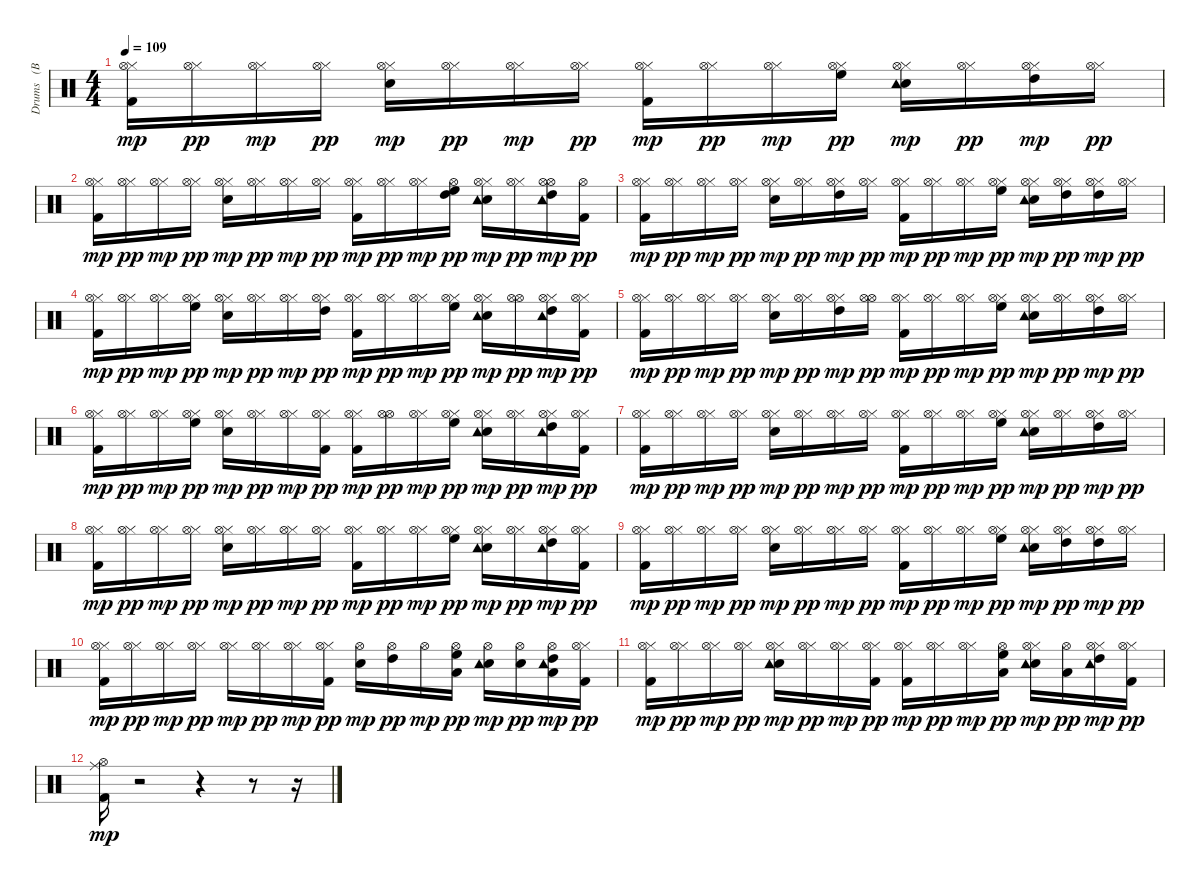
\track ("Drums   (BB)" "Drums   (B") {instrument percussion}
\staff {score}
\articulation defaults
\ts (4 4)
\tempo 109
\clef neutral
\ks c
("Kick (hit) 2" "Hi-Hat (closed)" "Hi-Hat (open)").16{dy mp} ("Hi-Hat (closed)" "Hi-Hat (open)").16{dy pp} ("Hi-Hat (closed)" "Hi-Hat (open)").16{dy mp} ("Hi-Hat (closed)" "Hi-Hat (open)").16{dy pp} ("Snare (hit) 2" "Hi-Hat (closed)" "Hi-Hat (open)").16{dy mp} ("Hi-Hat (closed)" "Hi-Hat (open)").16{dy pp} ("Hi-Hat (closed)" "Hi-Hat (open)").16{dy mp} ("Hi-Hat (closed)" "Hi-Hat (open)").16{dy pp} ("Kick (hit) 2" "Hi-Hat (closed)" "Hi-Hat (open)").16{dy mp} ("Hi-Hat (closed)" "Hi-Hat (open)").16{dy pp} ("Hi-Hat (closed)" "Hi-Hat (open)").16{dy mp} ("Hi-Hat (closed)" "High Floor Tom (hit)" "Hi-Hat (open)").16{dy pp} ("Snare (hit) 2" "Hi-Hat (closed)" "Tambourine (hit)" "Hi-Hat (open)").16{dy mp} ("Hi-Hat (closed)" "Hi-Hat (open)").16{dy pp} ("Hi-Hat (closed)" "High Tom (hit)" "Hi-Hat (open)").16{dy mp} ("Hi-Hat (closed)" "Hi-Hat (open)").16{dy pp} |
("Kick (hit) 2" "Hi-Hat (closed)" "Hi-Hat (open)").16{dy mp} ("Hi-Hat (closed)" "Hi-Hat (open)").16{dy pp} ("Hi-Hat (closed)" "Hi-Hat (open)").16{dy mp} ("Hi-Hat (closed)" "Hi-Hat (open)").16{dy pp} ("Snare (hit) 2" "Hi-Hat (closed)" "Hi-Hat (open)").16{dy mp} ("Hi-Hat (closed)" "Hi-Hat (open)").16{dy pp} ("Hi-Hat (closed)" "Hi-Hat (open)").16{dy mp} ("Hi-Hat (closed)" "Hi-Hat (open)").16{dy pp} ("Kick (hit) 2" "Hi-Hat (closed)" "Hi-Hat (open)").16{dy mp} ("Hi-Hat (closed)" "Hi-Hat (open)").16{dy pp} ("Hi-Hat (closed)" "Hi-Hat (open)").16{dy mp} ("High Tom (hit)" "High Floor Tom (hit)" "Hi-Hat (open)").16{dy pp} ("Snare (hit) 2" "Hi-Hat (closed)" "Tambourine (hit)" "Hi-Hat (open)").16{dy mp} ("Hi-Hat (closed)" "Hi-Hat (open)").16{dy pp} ("Hi-Hat (open)" "High Tom (hit)" "Tambourine (hit)" "Hi-Hat (open)").16{dy mp} ("Kick (hit) 2" "Hi-Hat (open)").16{dy pp} |
("Kick (hit) 2" "Hi-Hat (closed)" "Hi-Hat (open)").16{dy mp} ("Hi-Hat (closed)" "Hi-Hat (open)").16{dy pp} ("Hi-Hat (closed)" "Hi-Hat (open)").16{dy mp} ("Hi-Hat (closed)" "Hi-Hat (open)").16{dy pp} ("Snare (hit) 2" "Hi-Hat (closed)" "Hi-Hat (open)").16{dy mp} ("Hi-Hat (closed)" "Hi-Hat (open)").16{dy pp} ("Hi-Hat (closed)" "High Tom (hit)" "Hi-Hat (open)").16{dy mp} ("Hi-Hat (closed)" "Hi-Hat (open)").16{dy pp} ("Kick (hit) 2" "Hi-Hat (closed)" "Hi-Hat (open)").16{dy mp} ("Hi-Hat (closed)" "Hi-Hat (open)").16{dy pp} ("Hi-Hat (closed)" "Hi-Hat (open)").16{dy mp} ("Hi-Hat (closed)" "High Floor Tom (hit)" "Hi-Hat (open)").16{dy pp} ("Snare (hit) 2" "Hi-Hat (closed)" "Tambourine (hit)" "Hi-Hat (open)").16{dy mp} ("Hi-Hat (closed)" "High Tom (hit)" "Hi-Hat (open)").16{dy pp} ("Hi-Hat (closed)" "High Tom (hit)" "Hi-Hat (open)").16{dy mp} ("Hi-Hat (closed)" "Hi-Hat (open)").16{dy pp} |
("Kick (hit) 2" "Hi-Hat (closed)" "Hi-Hat (open)").16{dy mp} ("Hi-Hat (closed)" "Hi-Hat (open)").16{dy pp} ("Hi-Hat (closed)" "Hi-Hat (open)").16{dy mp} ("Hi-Hat (closed)" "High Floor Tom (hit)" "Hi-Hat (open)").16{dy pp} ("Snare (hit) 2" "Hi-Hat (closed)" "Hi-Hat (open)").16{dy mp} ("Hi-Hat (closed)" "Hi-Hat (open)").16{dy pp} ("Hi-Hat (closed)" "Hi-Hat (open)").16{dy mp} ("Hi-Hat (closed)" "High Tom (hit)" "Hi-Hat (open)").16{dy pp} ("Kick (hit) 2" "Hi-Hat (closed)" "Hi-Hat (open)").16{dy mp} ("Hi-Hat (closed)" "Hi-Hat (open)").16{dy pp} ("Hi-Hat (closed)" "Hi-Hat (open)").16{dy mp} ("Hi-Hat (closed)" "High Floor Tom (hit)" "Hi-Hat (open)").16{dy pp} ("Snare (hit) 2" "Hi-Hat (closed)" "Tambourine (hit)" "Hi-Hat (open)").16{dy mp} ("Hi-Hat (open)" "Hi-Hat (open)").16{dy pp} ("Hi-Hat (closed)" "High Tom (hit)" "Tambourine (hit)" "Hi-Hat (open)").16{dy mp} ("Kick (hit) 2" "Hi-Hat (closed)" "Hi-Hat (open)").16{dy pp} |
("Kick (hit) 2" "Hi-Hat (closed)" "Hi-Hat (open)").16{dy mp} ("Hi-Hat (closed)" "Hi-Hat (open)").16{dy pp} ("Hi-Hat (closed)" "Hi-Hat (open)").16{dy mp} ("Hi-Hat (closed)" "Hi-Hat (open)").16{dy pp} ("Snare (hit) 2" "Hi-Hat (closed)" "Hi-Hat (open)").16{dy mp} ("Hi-Hat (closed)" "Hi-Hat (open)").16{dy pp} ("Hi-Hat (closed)" "High Tom (hit)" "Hi-Hat (open)").16{dy mp} ("Hi-Hat (open)" "Hi-Hat (open)").16{dy pp} ("Kick (hit) 2" "Hi-Hat (closed)" "Hi-Hat (open)").16{dy mp} ("Hi-Hat (closed)" "Hi-Hat (open)").16{dy pp} ("Hi-Hat (closed)" "Hi-Hat (open)").16{dy mp} ("Hi-Hat (closed)" "High Floor Tom (hit)" "Hi-Hat (open)").16{dy pp} ("Snare (hit) 2" "Hi-Hat (closed)" "Tambourine (hit)" "Hi-Hat (open)").16{dy mp} ("Hi-Hat (closed)" "Hi-Hat (open)").16{dy pp} ("Hi-Hat (closed)" "High Tom (hit)" "Hi-Hat (open)").16{dy mp} ("Hi-Hat (closed)" "Hi-Hat (open)").16{dy pp} |
("Kick (hit) 2" "Hi-Hat (closed)" "Hi-Hat (open)").16{dy mp} ("Hi-Hat (closed)" "Hi-Hat (open)").16{dy pp} ("Hi-Hat (closed)" "Hi-Hat (open)").16{dy mp} ("Hi-Hat (closed)" "High Floor Tom (hit)" "Hi-Hat (open)").16{dy pp} ("Snare (hit) 2" "Hi-Hat (closed)" "Hi-Hat (open)").16{dy mp} ("Hi-Hat (closed)" "Hi-Hat (open)").16{dy pp} ("Hi-Hat (closed)" "Hi-Hat (open)").16{dy mp} ("Kick (hit) 2" "Hi-Hat (closed)" "Hi-Hat (open)").16{dy pp} ("Kick (hit) 2" "Hi-Hat (closed)" "Hi-Hat (open)").16{dy mp} ("Hi-Hat (open)" "Hi-Hat (open)").16{dy pp} ("Hi-Hat (closed)" "Hi-Hat (open)").16{dy mp} ("Hi-Hat (closed)" "High Floor Tom (hit)" "Hi-Hat (open)").16{dy pp} ("Snare (hit) 2" "Hi-Hat (closed)" "Tambourine (hit)" "Hi-Hat (open)").16{dy mp} ("Hi-Hat (closed)" "Hi-Hat (open)").16{dy pp} ("Hi-Hat (closed)" "High Tom (hit)" "Tambourine (hit)" "Hi-Hat (open)").16{dy mp} ("Kick (hit) 2" "Hi-Hat (closed)" "Hi-Hat (open)").16{dy pp} |
("Kick (hit) 2" "Hi-Hat (closed)" "Hi-Hat (open)").16{dy mp} ("Hi-Hat (closed)" "Hi-Hat (open)").16{dy pp} ("Hi-Hat (closed)" "Hi-Hat (open)").16{dy mp} ("Hi-Hat (closed)" "Hi-Hat (open)").16{dy pp} ("Snare (hit) 2" "Hi-Hat (closed)" "Hi-Hat (open)").16{dy mp} ("Hi-Hat (closed)" "Hi-Hat (open)").16{dy pp} ("Hi-Hat (closed)" "Hi-Hat (open)").16{dy mp} ("Hi-Hat (closed)" "Hi-Hat (open)").16{dy pp} ("Kick (hit) 2" "Hi-Hat (closed)" "Hi-Hat (open)").16{dy mp} ("Hi-Hat (closed)" "Hi-Hat (open)").16{dy pp} ("Hi-Hat (closed)" "Hi-Hat (open)").16{dy mp} ("Hi-Hat (closed)" "High Floor Tom (hit)" "Hi-Hat (open)").16{dy pp} ("Snare (hit) 2" "Hi-Hat (closed)" "Tambourine (hit)" "Hi-Hat (open)").16{dy mp} ("Hi-Hat (closed)" "Hi-Hat (open)").16{dy pp} ("Hi-Hat (closed)" "High Tom (hit)" "Hi-Hat (open)").16{dy mp} ("Hi-Hat (closed)" "Hi-Hat (open)").16{dy pp} |
("Kick (hit) 2" "Hi-Hat (closed)" "Hi-Hat (open)").16{dy mp} ("Hi-Hat (closed)" "Hi-Hat (open)").16{dy pp} ("Hi-Hat (closed)" "Hi-Hat (open)").16{dy mp} ("Hi-Hat (closed)" "Hi-Hat (open)").16{dy pp} ("Snare (hit) 2" "Hi-Hat (closed)" "Hi-Hat (open)").16{dy mp} ("Hi-Hat (closed)" "Hi-Hat (open)").16{dy pp} ("Hi-Hat (closed)" "Hi-Hat (open)").16{dy mp} ("Hi-Hat (closed)" "Hi-Hat (open)").16{dy pp} ("Kick (hit) 2" "Hi-Hat (closed)" "Hi-Hat (open)").16{dy mp} ("Hi-Hat (closed)" "Hi-Hat (open)").16{dy pp} ("Hi-Hat (closed)" "Hi-Hat (open)").16{dy mp} ("Hi-Hat (closed)" "High Floor Tom (hit)" "Hi-Hat (open)").16{dy pp} ("Snare (hit) 2" "Hi-Hat (closed)" "Tambourine (hit)" "Hi-Hat (open)").16{dy mp} ("Hi-Hat (closed)" "Hi-Hat (open)").16{dy pp} ("Hi-Hat (closed)" "High Tom (hit)" "Tambourine (hit)" "Hi-Hat (open)").16{dy mp} ("Kick (hit) 2" "Hi-Hat (closed)" "Hi-Hat (open)").16{dy pp} |
("Kick (hit) 2" "Hi-Hat (closed)" "Hi-Hat (open)").16{dy mp} ("Hi-Hat (closed)" "Hi-Hat (open)").16{dy pp} ("Hi-Hat (closed)" "Hi-Hat (open)").16{dy mp} ("Hi-Hat (closed)" "Hi-Hat (open)").16{dy pp} ("Snare (hit) 2" "Hi-Hat (closed)" "Hi-Hat (open)").16{dy mp} ("Hi-Hat (closed)" "Hi-Hat (open)").16{dy pp} ("Hi-Hat (closed)" "Hi-Hat (open)").16{dy mp} ("Hi-Hat (closed)" "Hi-Hat (open)").16{dy pp} ("Kick (hit) 2" "Hi-Hat (closed)" "Hi-Hat (open)").16{dy mp} ("Hi-Hat (closed)" "Hi-Hat (open)").16{dy pp} ("Hi-Hat (closed)" "Hi-Hat (open)").16{dy mp} ("Hi-Hat (closed)" "High Floor Tom (hit)" "Hi-Hat (open)").16{dy pp} ("Snare (hit) 2" "Hi-Hat (closed)" "Tambourine (hit)" "Hi-Hat (open)").16{dy mp} ("Hi-Hat (closed)" "High Tom (hit)" "Hi-Hat (open)").16{dy pp} ("Hi-Hat (closed)" "High Tom (hit)" "Hi-Hat (open)").16{dy mp} ("Hi-Hat (closed)" "Hi-Hat (open)").16{dy pp} |
("Kick (hit) 2" "Hi-Hat (closed)" "Hi-Hat (open)").16{dy mp} ("Hi-Hat (closed)" "Hi-Hat (open)").16{dy pp} ("Hi-Hat (closed)" "Hi-Hat (open)").16{dy mp} ("Hi-Hat (closed)" "Hi-Hat (open)").16{dy pp} ("Hi-Hat (closed)" "Hi-Hat (open)").16{dy mp} ("Hi-Hat (closed)" "Hi-Hat (open)").16{dy pp} ("Hi-Hat (closed)" "Hi-Hat (open)").16{dy mp} ("Kick (hit) 2" "Hi-Hat (closed)" "Hi-Hat (open)").16{dy pp} ("Snare (hit) 2" "Hi-Hat (open)").16{dy mp} ("High Tom (hit)" "Hi-Hat (open)").16{dy pp} "Hi-Hat (open)".16{dy mp} ("Low Tom (hit)" "High Floor Tom (hit)" "Hi-Hat (open)").16{dy pp} ("Snare (hit) 2" "Tambourine (hit)" "Hi-Hat (open)").16{dy mp} ("Snare (hit) 2" "Hi-Hat (open)").16{dy pp} ("Low Floor Tom (hit)" "High Tom (hit)" "Tambourine (hit)" "Hi-Hat (open)").16{dy mp} ("Kick (hit) 2" "Hi-Hat (closed)" "Hi-Hat (open)").16{dy pp} |
("Kick (hit) 2" "Hi-Hat (closed)" "Hi-Hat (open)").16{dy mp} ("Hi-Hat (closed)" "Hi-Hat (open)").16{dy pp} ("Hi-Hat (closed)" "Hi-Hat (open)").16{dy mp} ("Hi-Hat (closed)" "Hi-Hat (open)").16{dy pp} ("Snare (hit) 2" "Hi-Hat (closed)" "Tambourine (hit)" "Hi-Hat (open)").16{dy mp} ("Hi-Hat (closed)" "Hi-Hat (open)").16{dy pp} ("Hi-Hat (closed)" "Hi-Hat (open)").16{dy mp} ("Kick (hit) 2" "Hi-Hat (closed)" "Hi-Hat (open)").16{dy pp} ("Kick (hit) 2" "Hi-Hat (closed)" "Hi-Hat (open)").16{dy mp} ("Hi-Hat (closed)" "Hi-Hat (open)").16{dy pp} ("Hi-Hat (closed)" "Hi-Hat (open)").16{dy mp} ("Low Tom (hit)" "High Floor Tom (hit)" "Hi-Hat (open)").16{dy pp} ("Snare (hit) 2" "Hi-Hat (closed)" "Tambourine (hit)" "Hi-Hat (open)").16{dy mp} ("Low Floor Tom (hit)" "Hi-Hat (open)").16{dy pp} ("Hi-Hat (closed)" "High Tom (hit)" "Tambourine (hit)" "Hi-Hat (open)").16{dy mp} ("Kick (hit) 2" "Hi-Hat (closed)" "Hi-Hat (open)").16{dy pp} |
("Kick (hit) 2" "Ride (middle)" "Hi-Hat (open)").16{dy mp} r.2 r.4 r.8 r.16
